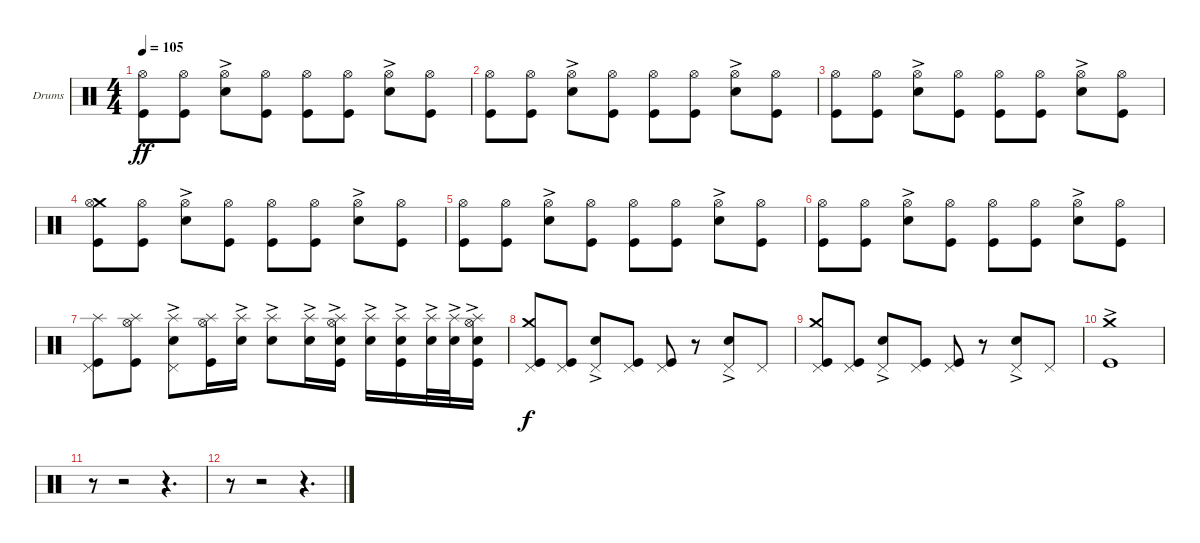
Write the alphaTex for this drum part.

\bracketExtendMode groupsimilarinstruments
\firstSystemTrackNameOrientation horizontal
\otherSystemsTrackNameOrientation horizontal
\track ("Drumkit" "Drums") {instrument percussion}
\staff {score}
\articulation defaults
\ts (4 4)
\tempo 105
\clef neutral
\ks c
("Kick (hit)" "Hi-Hat (open)").8{dy ff} ("Kick (hit)" "Hi-Hat (open)").8 ("Snare (hit) 2"{ac} "Hi-Hat (open)").8 ("Kick (hit)" "Hi-Hat (open)").8 ("Kick (hit)" "Hi-Hat (open)").8 ("Kick (hit)" "Hi-Hat (open)").8 ("Snare (hit) 2"{ac} "Hi-Hat (open)").8 ("Kick (hit)" "Hi-Hat (open)").8 |
("Kick (hit)" "Hi-Hat (open)").8 ("Kick (hit)" "Hi-Hat (open)").8 ("Snare (hit) 2"{ac} "Hi-Hat (open)").8 ("Kick (hit)" "Hi-Hat (open)").8 ("Kick (hit)" "Hi-Hat (open)").8 ("Kick (hit)" "Hi-Hat (open)").8 ("Snare (hit) 2"{ac} "Hi-Hat (open)").8 ("Kick (hit)" "Hi-Hat (open)").8 |
("Kick (hit)" "Hi-Hat (open)").8 ("Kick (hit)" "Hi-Hat (open)").8 ("Snare (hit) 2"{ac} "Hi-Hat (open)").8 ("Kick (hit)" "Hi-Hat (open)").8 ("Kick (hit)" "Hi-Hat (open)").8 ("Kick (hit)" "Hi-Hat (open)").8 ("Snare (hit) 2"{ac} "Hi-Hat (open)").8 ("Kick (hit)" "Hi-Hat (open)").8 |
("Kick (hit)" "Crash medium (hit)" "Hi-Hat (open)").8 ("Kick (hit)" "Hi-Hat (open)").8 ("Snare (hit) 2"{ac} "Hi-Hat (open)").8 ("Kick (hit)" "Hi-Hat (open)").8 ("Kick (hit)" "Hi-Hat (open)").8 ("Kick (hit)" "Hi-Hat (open)").8 ("Snare (hit) 2"{ac} "Hi-Hat (open)").8 ("Kick (hit)" "Hi-Hat (open)").8 |
("Kick (hit)" "Hi-Hat (open)").8 ("Kick (hit)" "Hi-Hat (open)").8 ("Snare (hit) 2"{ac} "Hi-Hat (open)").8 ("Kick (hit)" "Hi-Hat (open)").8 ("Kick (hit)" "Hi-Hat (open)").8 ("Kick (hit)" "Hi-Hat (open)").8 ("Snare (hit) 2"{ac} "Hi-Hat (open)").8 ("Kick (hit)" "Hi-Hat (open)").8 |
("Kick (hit)" "Hi-Hat (open)").8 ("Kick (hit)" "Hi-Hat (open)").8 ("Snare (hit) 2"{ac} "Hi-Hat (open)").8 ("Kick (hit)" "Hi-Hat (open)").8 ("Kick (hit)" "Hi-Hat (open)").8 ("Kick (hit)" "Hi-Hat (open)").8 ("Snare (hit) 2"{ac} "Hi-Hat (open)").8 ("Kick (hit)" "Hi-Hat (open)").8 |
("Kick (hit)" "Pedal Hi-Hat (hit)" "Splash (hit)").8 ("Kick (hit)" "Hi-Hat (open)" "Splash (hit)").8 ("Pedal Hi-Hat (hit)" "Snare (hit) 2"{ac} "Splash (hit)").8 ("Kick (hit)" "Hi-Hat (open)" "Splash (hit)").16 ("Snare (hit) 2"{ac} "Splash (hit)").16 ("Snare (hit) 2"{ac} "Splash (hit)").8 ("Snare (hit) 2"{ac} "Splash (hit)").16 ("Kick (hit)" "Hi-Hat (open)" "Splash (hit)" "Snare (hit) 2"{ac}).16 ("Snare (hit) 2"{ac} "Splash (hit)").16 ("Kick (hit)" "Splash (hit)" "Snare (hit) 2"{ac}).16 ("Snare (hit) 2"{ac} "Splash (hit)").32 ("Snare (hit) 2"{ac} "Splash (hit)").32 ("Kick (hit)" "Hi-Hat (open)" "Splash (hit)" "Snare (hit) 2"{ac}).16 |
("Kick (hit)" "Crash medium (hit)" "Pedal Hi-Hat (hit)").8{dy f} ("Kick (hit)" "Pedal Hi-Hat (hit)").8 ("Snare (hit) 2"{ac} "Pedal Hi-Hat (hit)"{ac}).8 ("Kick (hit)" "Pedal Hi-Hat (hit)").8 ("Kick (hit)" "Pedal Hi-Hat (hit)").8 r.8 ("Snare (hit) 2"{ac} "Pedal Hi-Hat (hit)"{ac}).8 "Pedal Hi-Hat (hit)".8 |
("Kick (hit)" "Crash medium (hit)" "Pedal Hi-Hat (hit)").8 ("Kick (hit)" "Pedal Hi-Hat (hit)").8 ("Snare (hit) 2"{ac} "Pedal Hi-Hat (hit)"{ac}).8 ("Kick (hit)" "Pedal Hi-Hat (hit)").8 ("Kick (hit)" "Pedal Hi-Hat (hit)").8 r.8 ("Snare (hit) 2"{ac} "Pedal Hi-Hat (hit)"{ac}).8 "Pedal Hi-Hat (hit)".8 |
("Kick (hit)"{ac} "Crash medium (hit)"{ac}).1 |
r.8 r.2 r.4{d} |
r.8 r.2 r.4{d}
